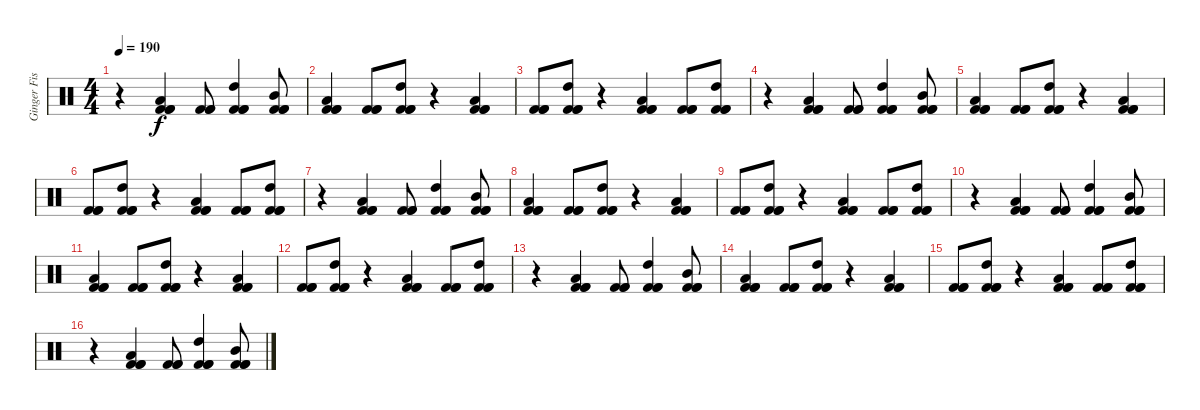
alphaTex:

\track ("Ginger Fish" "Ginger Fis") {instrument percussion}
\staff {score}
\articulation defaults
\ts (4 4)
\tempo 190
\clef neutral
\ks c
r.4{dy f} ("Low Tom (hit)" "Kick (hit) 2" "Kick (hit) 2" "Kick (hit) 2").4 ("Kick (hit) 2" "Kick (hit) 2" "Kick (hit) 2").8 ("High Tom (hit)" "Kick (hit) 2" "Kick (hit) 2" "Kick (hit) 2").4 ("Mid Tom (hit)" "Kick (hit) 2" "Kick (hit) 2" "Kick (hit) 2").8 |
("Low Tom (hit)" "Kick (hit) 2" "Kick (hit) 2" "Kick (hit) 2").4 ("Kick (hit) 2" "Kick (hit) 2" "Kick (hit) 2").8 ("High Tom (hit)" "Kick (hit) 2" "Kick (hit) 2" "Kick (hit) 2").8 r.4 ("Low Tom (hit)" "Kick (hit) 2" "Kick (hit) 2" "Kick (hit) 2").4 |
("Kick (hit) 2" "Kick (hit) 2" "Kick (hit) 2").8 ("High Tom (hit)" "Kick (hit) 2" "Kick (hit) 2" "Kick (hit) 2").8 r.4 ("Low Tom (hit)" "Kick (hit) 2" "Kick (hit) 2" "Kick (hit) 2").4 ("Kick (hit) 2" "Kick (hit) 2" "Kick (hit) 2").8 ("High Tom (hit)" "Kick (hit) 2" "Kick (hit) 2" "Kick (hit) 2").8 |
r.4 ("Low Tom (hit)" "Kick (hit) 2" "Kick (hit) 2" "Kick (hit) 2").4 ("Kick (hit) 2" "Kick (hit) 2" "Kick (hit) 2").8 ("High Tom (hit)" "Kick (hit) 2" "Kick (hit) 2" "Kick (hit) 2").4 ("Mid Tom (hit)" "Kick (hit) 2" "Kick (hit) 2" "Kick (hit) 2").8 |
("Low Tom (hit)" "Kick (hit) 2" "Kick (hit) 2" "Kick (hit) 2").4 ("Kick (hit) 2" "Kick (hit) 2" "Kick (hit) 2").8 ("High Tom (hit)" "Kick (hit) 2" "Kick (hit) 2" "Kick (hit) 2").8 r.4 ("Low Tom (hit)" "Kick (hit) 2" "Kick (hit) 2" "Kick (hit) 2").4 |
("Kick (hit) 2" "Kick (hit) 2" "Kick (hit) 2").8 ("High Tom (hit)" "Kick (hit) 2" "Kick (hit) 2" "Kick (hit) 2").8 r.4 ("Low Tom (hit)" "Kick (hit) 2" "Kick (hit) 2" "Kick (hit) 2").4 ("Kick (hit) 2" "Kick (hit) 2" "Kick (hit) 2").8 ("High Tom (hit)" "Kick (hit) 2" "Kick (hit) 2" "Kick (hit) 2").8 |
r.4 ("Low Tom (hit)" "Kick (hit) 2" "Kick (hit) 2" "Kick (hit) 2").4 ("Kick (hit) 2" "Kick (hit) 2" "Kick (hit) 2").8 ("High Tom (hit)" "Kick (hit) 2" "Kick (hit) 2" "Kick (hit) 2").4 ("Mid Tom (hit)" "Kick (hit) 2" "Kick (hit) 2" "Kick (hit) 2").8 |
("Low Tom (hit)" "Kick (hit) 2" "Kick (hit) 2" "Kick (hit) 2").4 ("Kick (hit) 2" "Kick (hit) 2" "Kick (hit) 2").8 ("High Tom (hit)" "Kick (hit) 2" "Kick (hit) 2" "Kick (hit) 2").8 r.4 ("Low Tom (hit)" "Kick (hit) 2" "Kick (hit) 2" "Kick (hit) 2").4 |
("Kick (hit) 2" "Kick (hit) 2" "Kick (hit) 2").8 ("High Tom (hit)" "Kick (hit) 2" "Kick (hit) 2" "Kick (hit) 2").8 r.4 ("Low Tom (hit)" "Kick (hit) 2" "Kick (hit) 2" "Kick (hit) 2").4 ("Kick (hit) 2" "Kick (hit) 2" "Kick (hit) 2").8 ("High Tom (hit)" "Kick (hit) 2" "Kick (hit) 2" "Kick (hit) 2").8 |
r.4 ("Low Tom (hit)" "Kick (hit) 2" "Kick (hit) 2" "Kick (hit) 2").4 ("Kick (hit) 2" "Kick (hit) 2" "Kick (hit) 2").8 ("High Tom (hit)" "Kick (hit) 2" "Kick (hit) 2" "Kick (hit) 2").4 ("Mid Tom (hit)" "Kick (hit) 2" "Kick (hit) 2" "Kick (hit) 2").8 |
("Low Tom (hit)" "Kick (hit) 2" "Kick (hit) 2" "Kick (hit) 2").4 ("Kick (hit) 2" "Kick (hit) 2" "Kick (hit) 2").8 ("High Tom (hit)" "Kick (hit) 2" "Kick (hit) 2" "Kick (hit) 2").8 r.4 ("Low Tom (hit)" "Kick (hit) 2" "Kick (hit) 2" "Kick (hit) 2").4 |
("Kick (hit) 2" "Kick (hit) 2" "Kick (hit) 2").8 ("High Tom (hit)" "Kick (hit) 2" "Kick (hit) 2" "Kick (hit) 2").8 r.4 ("Low Tom (hit)" "Kick (hit) 2" "Kick (hit) 2" "Kick (hit) 2").4 ("Kick (hit) 2" "Kick (hit) 2" "Kick (hit) 2").8 ("High Tom (hit)" "Kick (hit) 2" "Kick (hit) 2" "Kick (hit) 2").8 |
r.4 ("Low Tom (hit)" "Kick (hit) 2" "Kick (hit) 2" "Kick (hit) 2").4 ("Kick (hit) 2" "Kick (hit) 2" "Kick (hit) 2").8 ("High Tom (hit)" "Kick (hit) 2" "Kick (hit) 2" "Kick (hit) 2").4 ("Mid Tom (hit)" "Kick (hit) 2" "Kick (hit) 2" "Kick (hit) 2").8 |
("Low Tom (hit)" "Kick (hit) 2" "Kick (hit) 2" "Kick (hit) 2").4 ("Kick (hit) 2" "Kick (hit) 2" "Kick (hit) 2").8 ("High Tom (hit)" "Kick (hit) 2" "Kick (hit) 2" "Kick (hit) 2").8 r.4 ("Low Tom (hit)" "Kick (hit) 2" "Kick (hit) 2" "Kick (hit) 2").4 |
("Kick (hit) 2" "Kick (hit) 2" "Kick (hit) 2").8 ("High Tom (hit)" "Kick (hit) 2" "Kick (hit) 2" "Kick (hit) 2").8 r.4 ("Low Tom (hit)" "Kick (hit) 2" "Kick (hit) 2" "Kick (hit) 2").4 ("Kick (hit) 2" "Kick (hit) 2" "Kick (hit) 2").8 ("High Tom (hit)" "Kick (hit) 2" "Kick (hit) 2" "Kick (hit) 2").8 |
r.4 ("Low Tom (hit)" "Kick (hit) 2" "Kick (hit) 2" "Kick (hit) 2").4 ("Kick (hit) 2" "Kick (hit) 2" "Kick (hit) 2").8 ("High Tom (hit)" "Kick (hit) 2" "Kick (hit) 2" "Kick (hit) 2").4 ("Mid Tom (hit)" "Kick (hit) 2" "Kick (hit) 2" "Kick (hit) 2").8
